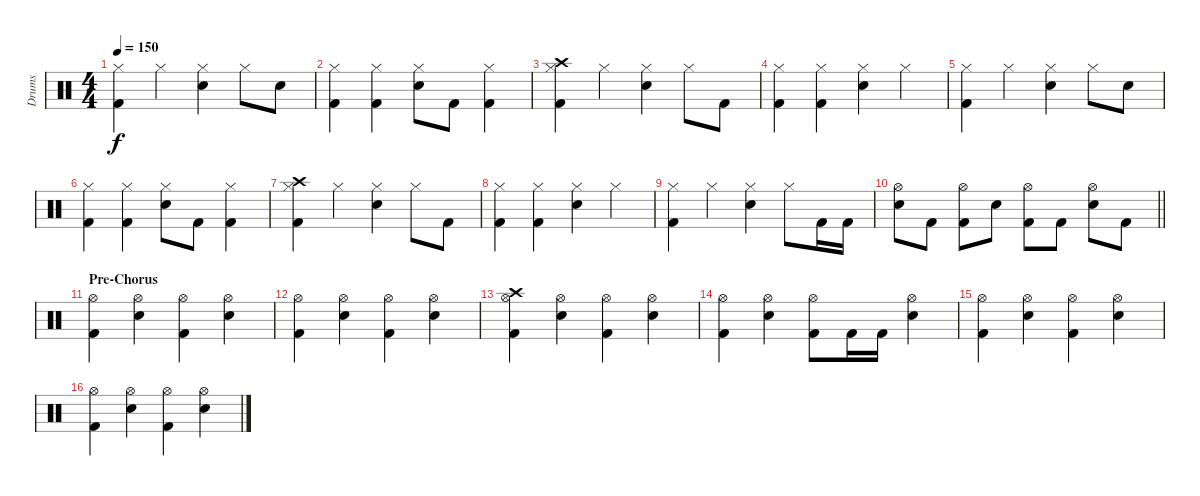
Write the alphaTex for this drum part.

\track ("Drums" "Drums") {instrument percussion}
\staff {score}
\articulation defaults
\ts (4 4)
\tempo 150
\clef neutral
\ks c
("Hi-Hat (closed)" "Kick (hit) 2").4{dy f} "Hi-Hat (closed)".4 ("Hi-Hat (closed)" "Snare (hit) 2").4 "Hi-Hat (closed)".8 "Snare (hit) 2".8 |
("Hi-Hat (closed)" "Kick (hit) 2").4 ("Hi-Hat (closed)" "Kick (hit) 2").4 ("Hi-Hat (closed)" "Snare (hit) 2").8 "Kick (hit) 2".8 ("Hi-Hat (closed)" "Kick (hit) 2").4 |
("Crash high (hit)" "Hi-Hat (closed)" "Kick (hit) 2").4 "Hi-Hat (closed)".4 ("Hi-Hat (closed)" "Snare (hit) 2").4 "Hi-Hat (closed)".8 "Kick (hit) 2".8 |
("Hi-Hat (closed)" "Kick (hit) 2").4 ("Hi-Hat (closed)" "Kick (hit) 2").4 ("Hi-Hat (closed)" "Snare (hit) 2").4 "Hi-Hat (closed)".4 |
("Hi-Hat (closed)" "Kick (hit) 2").4 "Hi-Hat (closed)".4 ("Hi-Hat (closed)" "Snare (hit) 2").4 "Hi-Hat (closed)".8 "Snare (hit) 2".8 |
("Hi-Hat (closed)" "Kick (hit) 2").4 ("Hi-Hat (closed)" "Kick (hit) 2").4 ("Hi-Hat (closed)" "Snare (hit) 2").8 "Kick (hit) 2".8 ("Hi-Hat (closed)" "Kick (hit) 2").4 |
("Crash high (hit)" "Hi-Hat (closed)" "Kick (hit) 2").4 "Hi-Hat (closed)".4 ("Hi-Hat (closed)" "Snare (hit) 2").4 "Hi-Hat (closed)".8 "Kick (hit) 2".8 |
("Hi-Hat (closed)" "Kick (hit) 2").4 ("Hi-Hat (closed)" "Kick (hit) 2").4 ("Hi-Hat (closed)" "Snare (hit) 2").4 "Hi-Hat (closed)".4 |
("Hi-Hat (closed)" "Kick (hit) 2").4 "Hi-Hat (closed)".4 ("Hi-Hat (closed)" "Snare (hit) 2").4 "Hi-Hat (closed)".8 "Kick (hit) 2".16 "Kick (hit) 2".16 |
\barLineRight lightlight
("Hi-Hat (open)" "Snare (hit) 2").8 "Kick (hit) 2".8 ("Hi-Hat (open)" "Kick (hit) 2").8 "Snare (hit) 2".8 ("Hi-Hat (open)" "Kick (hit) 2").8 "Kick (hit) 2".8 ("Hi-Hat (open)" "Snare (hit) 2").8 "Kick (hit) 2".8 |
\section ("" "Pre-Chorus")
("Hi-Hat (open)" "Kick (hit) 2").4 ("Hi-Hat (open)" "Snare (hit) 2").4 ("Hi-Hat (open)" "Kick (hit) 2").4 ("Hi-Hat (open)" "Snare (hit) 2").4 |
("Hi-Hat (open)" "Kick (hit) 2").4 ("Hi-Hat (open)" "Snare (hit) 2").4 ("Hi-Hat (open)" "Kick (hit) 2").4 ("Hi-Hat (open)" "Snare (hit) 2").4 |
("Crash high (hit)" "Hi-Hat (open)" "Kick (hit) 2").4 ("Hi-Hat (open)" "Snare (hit) 2").4 ("Hi-Hat (open)" "Kick (hit) 2").4 ("Hi-Hat (open)" "Snare (hit) 2").4 |
("Hi-Hat (open)" "Kick (hit) 2").4 ("Hi-Hat (open)" "Snare (hit) 2").4 ("Hi-Hat (open)" "Kick (hit) 2").8 "Kick (hit) 2".16 "Kick (hit) 2".16 ("Hi-Hat (open)" "Snare (hit) 2").4 |
("Hi-Hat (open)" "Kick (hit) 2").4 ("Hi-Hat (open)" "Snare (hit) 2").4 ("Hi-Hat (open)" "Kick (hit) 2").4 ("Hi-Hat (open)" "Snare (hit) 2").4 |
("Hi-Hat (open)" "Kick (hit) 2").4 ("Hi-Hat (open)" "Snare (hit) 2").4 ("Hi-Hat (open)" "Kick (hit) 2").4 ("Hi-Hat (open)" "Snare (hit) 2").4
